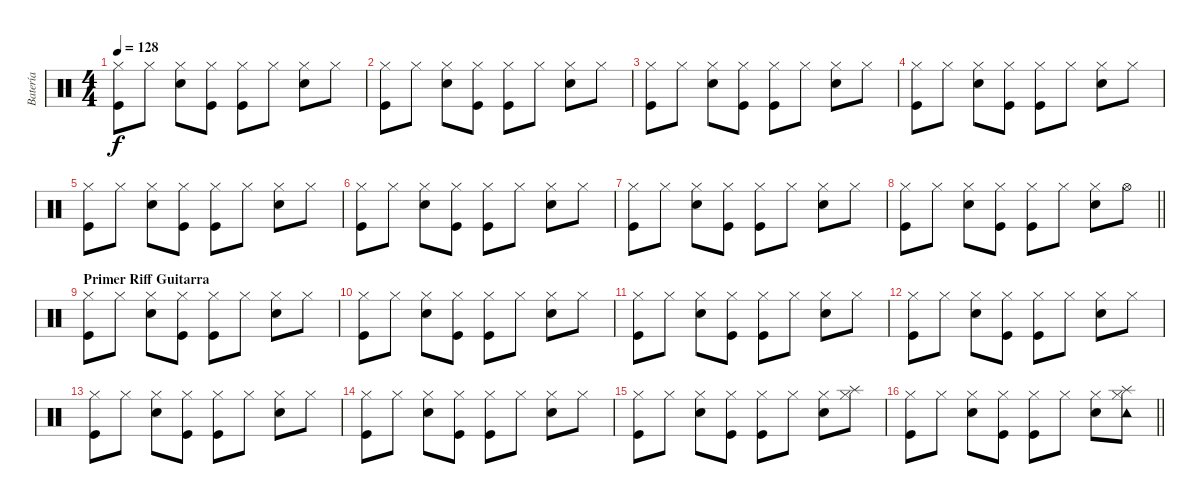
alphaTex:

\track ("Batería" "Batería") {instrument percussion}
\staff {score}
\articulation defaults
\ts (4 4)
\tempo 128
\clef neutral
\ks c
("Hi-Hat (closed)" "Kick (hit)").8{dy f} "Hi-Hat (closed)".8 ("Hi-Hat (closed)" "Snare (hit) 2").8 ("Hi-Hat (closed)" "Kick (hit)").8 ("Hi-Hat (closed)" "Kick (hit)").8 "Hi-Hat (closed)".8 ("Hi-Hat (closed)" "Snare (hit) 2").8 "Hi-Hat (closed)".8 |
("Hi-Hat (closed)" "Kick (hit)").8 "Hi-Hat (closed)".8 ("Hi-Hat (closed)" "Snare (hit) 2").8 ("Hi-Hat (closed)" "Kick (hit)").8 ("Hi-Hat (closed)" "Kick (hit)").8 "Hi-Hat (closed)".8 ("Hi-Hat (closed)" "Snare (hit) 2").8 "Hi-Hat (closed)".8 |
("Hi-Hat (closed)" "Kick (hit)").8 "Hi-Hat (closed)".8 ("Hi-Hat (closed)" "Snare (hit) 2").8 ("Hi-Hat (closed)" "Kick (hit)").8 ("Hi-Hat (closed)" "Kick (hit)").8 "Hi-Hat (closed)".8 ("Hi-Hat (closed)" "Snare (hit) 2").8 "Hi-Hat (closed)".8 |
("Hi-Hat (closed)" "Kick (hit)").8 "Hi-Hat (closed)".8 ("Hi-Hat (closed)" "Snare (hit) 2").8 ("Hi-Hat (closed)" "Kick (hit)").8 ("Hi-Hat (closed)" "Kick (hit)").8 "Hi-Hat (closed)".8 ("Hi-Hat (closed)" "Snare (hit) 2").8 "Hi-Hat (closed)".8 |
("Hi-Hat (closed)" "Kick (hit)").8 "Hi-Hat (closed)".8 ("Hi-Hat (closed)" "Snare (hit) 2").8 ("Hi-Hat (closed)" "Kick (hit)").8 ("Hi-Hat (closed)" "Kick (hit)").8 "Hi-Hat (closed)".8 ("Hi-Hat (closed)" "Snare (hit) 2").8 "Hi-Hat (closed)".8 |
("Hi-Hat (closed)" "Kick (hit)").8 "Hi-Hat (closed)".8 ("Hi-Hat (closed)" "Snare (hit) 2").8 ("Hi-Hat (closed)" "Kick (hit)").8 ("Hi-Hat (closed)" "Kick (hit)").8 "Hi-Hat (closed)".8 ("Hi-Hat (closed)" "Snare (hit) 2").8 "Hi-Hat (closed)".8 |
("Hi-Hat (closed)" "Kick (hit)").8 "Hi-Hat (closed)".8 ("Hi-Hat (closed)" "Snare (hit) 2").8 ("Hi-Hat (closed)" "Kick (hit)").8 ("Hi-Hat (closed)" "Kick (hit)").8 "Hi-Hat (closed)".8 ("Hi-Hat (closed)" "Snare (hit) 2").8 "Hi-Hat (closed)".8 |
\barLineRight lightlight
("Hi-Hat (closed)" "Kick (hit)").8 "Hi-Hat (closed)".8 ("Hi-Hat (closed)" "Snare (hit) 2").8 ("Hi-Hat (closed)" "Kick (hit)").8 ("Hi-Hat (closed)" "Kick (hit)").8 "Hi-Hat (closed)".8 ("Hi-Hat (closed)" "Snare (hit) 2").8 "Hi-Hat (open)".8 |
\section ("" "Primer Riff Guitarra")
("Hi-Hat (closed)" "Kick (hit)").8 "Hi-Hat (closed)".8 ("Hi-Hat (closed)" "Snare (hit) 2").8 ("Hi-Hat (closed)" "Kick (hit)").8 ("Hi-Hat (closed)" "Kick (hit)").8 "Hi-Hat (closed)".8 ("Hi-Hat (closed)" "Snare (hit) 2").8 "Hi-Hat (closed)".8 |
("Hi-Hat (closed)" "Kick (hit)").8 "Hi-Hat (closed)".8 ("Hi-Hat (closed)" "Snare (hit) 2").8 ("Hi-Hat (closed)" "Kick (hit)").8 ("Hi-Hat (closed)" "Kick (hit)").8 "Hi-Hat (closed)".8 ("Hi-Hat (closed)" "Snare (hit) 2").8 "Hi-Hat (closed)".8 |
("Hi-Hat (closed)" "Kick (hit)").8 "Hi-Hat (closed)".8 ("Hi-Hat (closed)" "Snare (hit) 2").8 ("Hi-Hat (closed)" "Kick (hit)").8 ("Hi-Hat (closed)" "Kick (hit)").8 "Hi-Hat (closed)".8 ("Hi-Hat (closed)" "Snare (hit) 2").8 "Hi-Hat (closed)".8 |
("Hi-Hat (closed)" "Kick (hit)").8 "Hi-Hat (closed)".8 ("Hi-Hat (closed)" "Snare (hit) 2").8 ("Hi-Hat (closed)" "Kick (hit)").8 ("Hi-Hat (closed)" "Kick (hit)").8 "Hi-Hat (closed)".8 ("Hi-Hat (closed)" "Snare (hit) 2").8 "Hi-Hat (closed)".8 |
("Hi-Hat (closed)" "Kick (hit)").8 "Hi-Hat (closed)".8 ("Hi-Hat (closed)" "Snare (hit) 2").8 ("Hi-Hat (closed)" "Kick (hit)").8 ("Hi-Hat (closed)" "Kick (hit)").8 "Hi-Hat (closed)".8 ("Hi-Hat (closed)" "Snare (hit) 2").8 "Hi-Hat (closed)".8 |
("Hi-Hat (closed)" "Kick (hit)").8 "Hi-Hat (closed)".8 ("Hi-Hat (closed)" "Snare (hit) 2").8 ("Hi-Hat (closed)" "Kick (hit)").8 ("Hi-Hat (closed)" "Kick (hit)").8 "Hi-Hat (closed)".8 ("Hi-Hat (closed)" "Snare (hit) 2").8 "Hi-Hat (closed)".8 |
("Hi-Hat (closed)" "Kick (hit)").8 "Hi-Hat (closed)".8 ("Hi-Hat (closed)" "Snare (hit) 2").8 ("Hi-Hat (closed)" "Kick (hit)").8 ("Hi-Hat (closed)" "Kick (hit)").8 "Hi-Hat (closed)".8 ("Hi-Hat (closed)" "Snare (hit) 2").8 ("Hi-Hat (closed)" "Splash (hit)").8 |
\barLineRight lightlight
("Hi-Hat (closed)" "Kick (hit)").8 "Hi-Hat (closed)".8 ("Hi-Hat (closed)" "Snare (hit) 2").8 ("Hi-Hat (closed)" "Kick (hit)").8 ("Hi-Hat (closed)" "Kick (hit)").8 "Hi-Hat (closed)".8 ("Hi-Hat (closed)" "Snare (hit) 2").8 ("Hi-Hat (closed)" "Tambourine (hit)" "Splash (hit)").8
